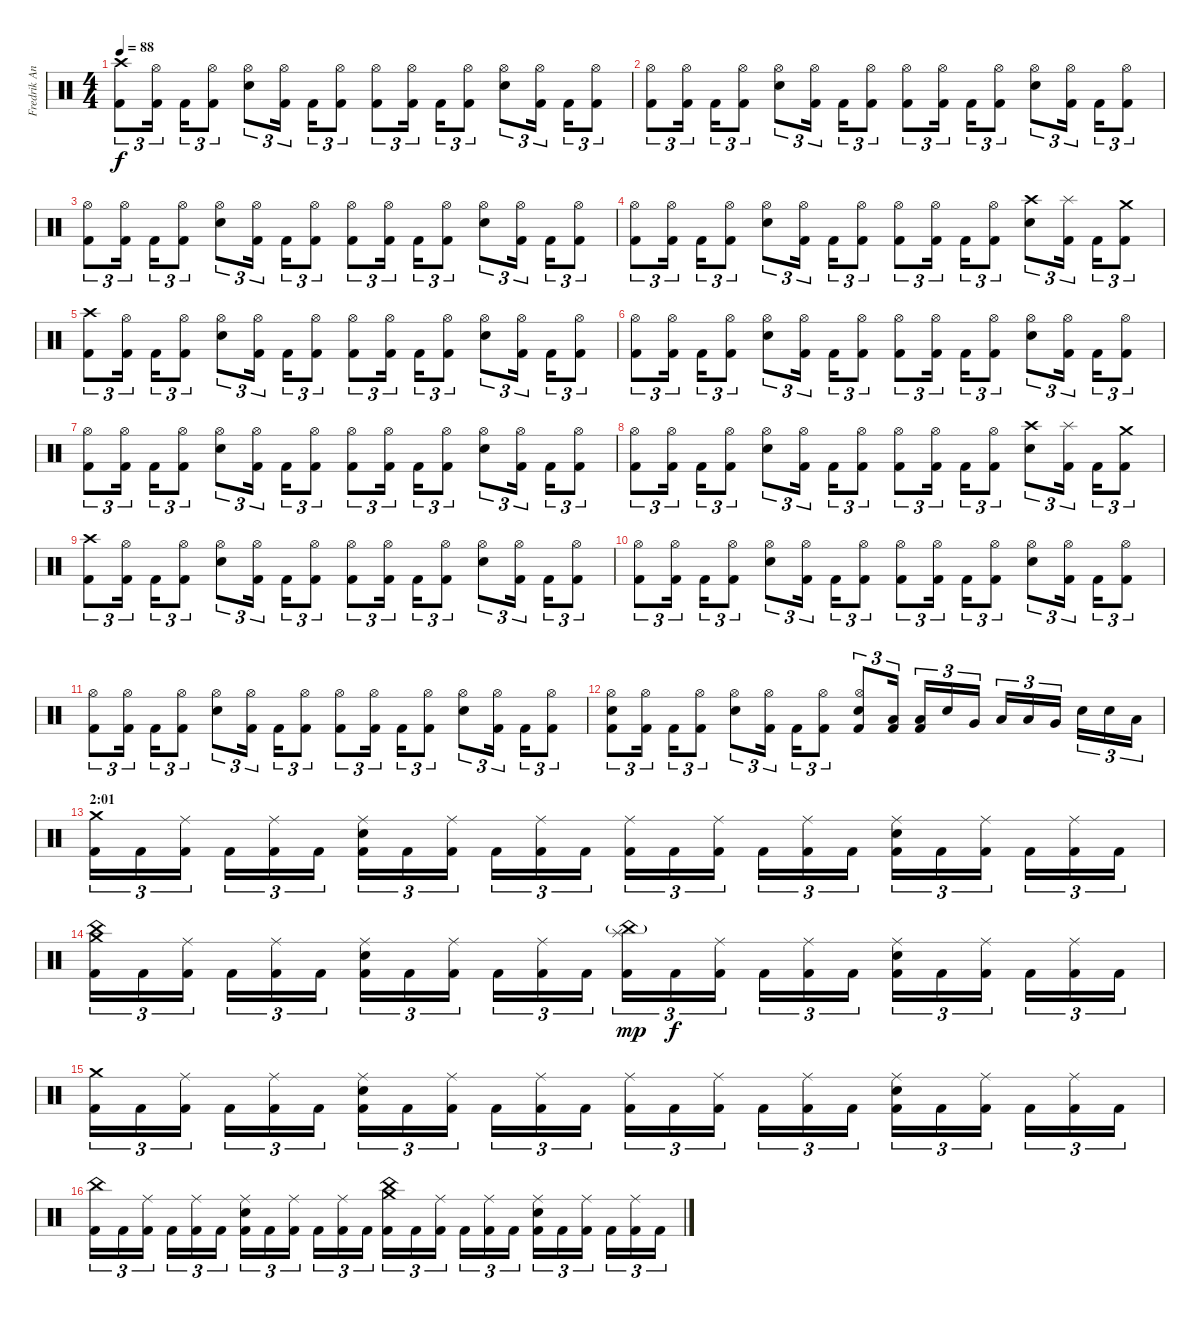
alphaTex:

\track ("Fredrik Andersson" "Fredrik An") {instrument percussion}
\staff {score}
\articulation defaults
\ts (4 4)
\tempo 88
\clef neutral
\ks c
("Crash high (hit)" "Kick (hit) 2").8{tu (3 2) dy f} ("Hi-Hat (open)" "Kick (hit) 2").16{tu (3 2)} "Kick (hit) 2".16{tu (3 2)} ("Hi-Hat (open)" "Kick (hit) 2").8{tu (3 2)} ("Hi-Hat (open)" "Electric Snare (hit)").8{tu (3 2)} ("Hi-Hat (open)" "Kick (hit) 2").16{tu (3 2)} "Kick (hit) 2".16{tu (3 2)} ("Hi-Hat (open)" "Kick (hit) 2").8{tu (3 2)} ("Hi-Hat (open)" "Kick (hit) 2").8{tu (3 2)} ("Hi-Hat (open)" "Kick (hit) 2").16{tu (3 2)} "Kick (hit) 2".16{tu (3 2)} ("Hi-Hat (open)" "Kick (hit) 2").8{tu (3 2)} ("Hi-Hat (open)" "Electric Snare (hit)").8{tu (3 2)} ("Hi-Hat (open)" "Kick (hit) 2").16{tu (3 2)} "Kick (hit) 2".16{tu (3 2)} ("Hi-Hat (open)" "Kick (hit) 2").8{tu (3 2)} |
("Hi-Hat (open)" "Kick (hit) 2").8{tu (3 2)} ("Hi-Hat (open)" "Kick (hit) 2").16{tu (3 2)} "Kick (hit) 2".16{tu (3 2)} ("Hi-Hat (open)" "Kick (hit) 2").8{tu (3 2)} ("Hi-Hat (open)" "Electric Snare (hit)").8{tu (3 2)} ("Hi-Hat (open)" "Kick (hit) 2").16{tu (3 2)} "Kick (hit) 2".16{tu (3 2)} ("Hi-Hat (open)" "Kick (hit) 2").8{tu (3 2)} ("Hi-Hat (open)" "Kick (hit) 2").8{tu (3 2)} ("Hi-Hat (open)" "Kick (hit) 2").16{tu (3 2)} "Kick (hit) 2".16{tu (3 2)} ("Hi-Hat (open)" "Kick (hit) 2").8{tu (3 2)} ("Hi-Hat (open)" "Electric Snare (hit)").8{tu (3 2)} ("Hi-Hat (open)" "Kick (hit) 2").16{tu (3 2)} "Kick (hit) 2".16{tu (3 2)} ("Hi-Hat (open)" "Kick (hit) 2").8{tu (3 2)} |
("Hi-Hat (open)" "Kick (hit) 2").8{tu (3 2)} ("Hi-Hat (open)" "Kick (hit) 2").16{tu (3 2)} "Kick (hit) 2".16{tu (3 2)} ("Hi-Hat (open)" "Kick (hit) 2").8{tu (3 2)} ("Hi-Hat (open)" "Electric Snare (hit)").8{tu (3 2)} ("Hi-Hat (open)" "Kick (hit) 2").16{tu (3 2)} "Kick (hit) 2".16{tu (3 2)} ("Hi-Hat (open)" "Kick (hit) 2").8{tu (3 2)} ("Hi-Hat (open)" "Kick (hit) 2").8{tu (3 2)} ("Hi-Hat (open)" "Kick (hit) 2").16{tu (3 2)} "Kick (hit) 2".16{tu (3 2)} ("Hi-Hat (open)" "Kick (hit) 2").8{tu (3 2)} ("Hi-Hat (open)" "Electric Snare (hit)").8{tu (3 2)} ("Hi-Hat (open)" "Kick (hit) 2").16{tu (3 2)} "Kick (hit) 2".16{tu (3 2)} ("Hi-Hat (open)" "Kick (hit) 2").8{tu (3 2)} |
("Hi-Hat (open)" "Kick (hit) 2").8{tu (3 2)} ("Hi-Hat (open)" "Kick (hit) 2").16{tu (3 2)} "Kick (hit) 2".16{tu (3 2)} ("Hi-Hat (open)" "Kick (hit) 2").8{tu (3 2)} ("Hi-Hat (open)" "Electric Snare (hit)").8{tu (3 2)} ("Hi-Hat (open)" "Kick (hit) 2").16{tu (3 2)} "Kick (hit) 2".16{tu (3 2)} ("Hi-Hat (open)" "Kick (hit) 2").8{tu (3 2)} ("Hi-Hat (open)" "Kick (hit) 2").8{tu (3 2)} ("Hi-Hat (open)" "Kick (hit) 2").16{tu (3 2)} "Kick (hit) 2".16{tu (3 2)} ("Hi-Hat (open)" "Kick (hit) 2").8{tu (3 2)} ("Crash high (hit)" "Electric Snare (hit)").8{tu (3 2)} ("Splash (hit)" "Kick (hit) 2").16{tu (3 2)} "Kick (hit) 2".16{tu (3 2)} ("Crash medium (hit)" "Kick (hit) 2").8{tu (3 2)} |
("Crash high (hit)" "Kick (hit) 2").8{tu (3 2)} ("Hi-Hat (open)" "Kick (hit) 2").16{tu (3 2)} "Kick (hit) 2".16{tu (3 2)} ("Hi-Hat (open)" "Kick (hit) 2").8{tu (3 2)} ("Hi-Hat (open)" "Electric Snare (hit)").8{tu (3 2)} ("Hi-Hat (open)" "Kick (hit) 2").16{tu (3 2)} "Kick (hit) 2".16{tu (3 2)} ("Hi-Hat (open)" "Kick (hit) 2").8{tu (3 2)} ("Hi-Hat (open)" "Kick (hit) 2").8{tu (3 2)} ("Hi-Hat (open)" "Kick (hit) 2").16{tu (3 2)} "Kick (hit) 2".16{tu (3 2)} ("Hi-Hat (open)" "Kick (hit) 2").8{tu (3 2)} ("Hi-Hat (open)" "Electric Snare (hit)").8{tu (3 2)} ("Hi-Hat (open)" "Kick (hit) 2").16{tu (3 2)} "Kick (hit) 2".16{tu (3 2)} ("Hi-Hat (open)" "Kick (hit) 2").8{tu (3 2)} |
("Hi-Hat (open)" "Kick (hit) 2").8{tu (3 2)} ("Hi-Hat (open)" "Kick (hit) 2").16{tu (3 2)} "Kick (hit) 2".16{tu (3 2)} ("Hi-Hat (open)" "Kick (hit) 2").8{tu (3 2)} ("Hi-Hat (open)" "Electric Snare (hit)").8{tu (3 2)} ("Hi-Hat (open)" "Kick (hit) 2").16{tu (3 2)} "Kick (hit) 2".16{tu (3 2)} ("Hi-Hat (open)" "Kick (hit) 2").8{tu (3 2)} ("Hi-Hat (open)" "Kick (hit) 2").8{tu (3 2)} ("Hi-Hat (open)" "Kick (hit) 2").16{tu (3 2)} "Kick (hit) 2".16{tu (3 2)} ("Hi-Hat (open)" "Kick (hit) 2").8{tu (3 2)} ("Hi-Hat (open)" "Electric Snare (hit)").8{tu (3 2)} ("Hi-Hat (open)" "Kick (hit) 2").16{tu (3 2)} "Kick (hit) 2".16{tu (3 2)} ("Hi-Hat (open)" "Kick (hit) 2").8{tu (3 2)} |
("Hi-Hat (open)" "Kick (hit) 2").8{tu (3 2)} ("Hi-Hat (open)" "Kick (hit) 2").16{tu (3 2)} "Kick (hit) 2".16{tu (3 2)} ("Hi-Hat (open)" "Kick (hit) 2").8{tu (3 2)} ("Hi-Hat (open)" "Electric Snare (hit)").8{tu (3 2)} ("Hi-Hat (open)" "Kick (hit) 2").16{tu (3 2)} "Kick (hit) 2".16{tu (3 2)} ("Hi-Hat (open)" "Kick (hit) 2").8{tu (3 2)} ("Hi-Hat (open)" "Kick (hit) 2").8{tu (3 2)} ("Hi-Hat (open)" "Kick (hit) 2").16{tu (3 2)} "Kick (hit) 2".16{tu (3 2)} ("Hi-Hat (open)" "Kick (hit) 2").8{tu (3 2)} ("Hi-Hat (open)" "Electric Snare (hit)").8{tu (3 2)} ("Hi-Hat (open)" "Kick (hit) 2").16{tu (3 2)} "Kick (hit) 2".16{tu (3 2)} ("Hi-Hat (open)" "Kick (hit) 2").8{tu (3 2)} |
("Hi-Hat (open)" "Kick (hit) 2").8{tu (3 2)} ("Hi-Hat (open)" "Kick (hit) 2").16{tu (3 2)} "Kick (hit) 2".16{tu (3 2)} ("Hi-Hat (open)" "Kick (hit) 2").8{tu (3 2)} ("Hi-Hat (open)" "Electric Snare (hit)").8{tu (3 2)} ("Hi-Hat (open)" "Kick (hit) 2").16{tu (3 2)} "Kick (hit) 2".16{tu (3 2)} ("Hi-Hat (open)" "Kick (hit) 2").8{tu (3 2)} ("Hi-Hat (open)" "Kick (hit) 2").8{tu (3 2)} ("Hi-Hat (open)" "Kick (hit) 2").16{tu (3 2)} "Kick (hit) 2".16{tu (3 2)} ("Hi-Hat (open)" "Kick (hit) 2").8{tu (3 2)} ("Crash high (hit)" "Electric Snare (hit)").8{tu (3 2)} ("Splash (hit)" "Kick (hit) 2").16{tu (3 2)} "Kick (hit) 2".16{tu (3 2)} ("Crash medium (hit)" "Kick (hit) 2").8{tu (3 2)} |
("Crash high (hit)" "Kick (hit) 2").8{tu (3 2)} ("Hi-Hat (open)" "Kick (hit) 2").16{tu (3 2)} "Kick (hit) 2".16{tu (3 2)} ("Hi-Hat (open)" "Kick (hit) 2").8{tu (3 2)} ("Hi-Hat (open)" "Electric Snare (hit)").8{tu (3 2)} ("Hi-Hat (open)" "Kick (hit) 2").16{tu (3 2)} "Kick (hit) 2".16{tu (3 2)} ("Hi-Hat (open)" "Kick (hit) 2").8{tu (3 2)} ("Hi-Hat (open)" "Kick (hit) 2").8{tu (3 2)} ("Hi-Hat (open)" "Kick (hit) 2").16{tu (3 2)} "Kick (hit) 2".16{tu (3 2)} ("Hi-Hat (open)" "Kick (hit) 2").8{tu (3 2)} ("Hi-Hat (open)" "Electric Snare (hit)").8{tu (3 2)} ("Hi-Hat (open)" "Kick (hit) 2").16{tu (3 2)} "Kick (hit) 2".16{tu (3 2)} ("Hi-Hat (open)" "Kick (hit) 2").8{tu (3 2)} |
("Hi-Hat (open)" "Kick (hit) 2").8{tu (3 2)} ("Hi-Hat (open)" "Kick (hit) 2").16{tu (3 2)} "Kick (hit) 2".16{tu (3 2)} ("Hi-Hat (open)" "Kick (hit) 2").8{tu (3 2)} ("Hi-Hat (open)" "Electric Snare (hit)").8{tu (3 2)} ("Hi-Hat (open)" "Kick (hit) 2").16{tu (3 2)} "Kick (hit) 2".16{tu (3 2)} ("Hi-Hat (open)" "Kick (hit) 2").8{tu (3 2)} ("Hi-Hat (open)" "Kick (hit) 2").8{tu (3 2)} ("Hi-Hat (open)" "Kick (hit) 2").16{tu (3 2)} "Kick (hit) 2".16{tu (3 2)} ("Hi-Hat (open)" "Kick (hit) 2").8{tu (3 2)} ("Hi-Hat (open)" "Electric Snare (hit)").8{tu (3 2)} ("Hi-Hat (open)" "Kick (hit) 2").16{tu (3 2)} "Kick (hit) 2".16{tu (3 2)} ("Hi-Hat (open)" "Kick (hit) 2").8{tu (3 2)} |
("Hi-Hat (open)" "Kick (hit) 2").8{tu (3 2)} ("Hi-Hat (open)" "Kick (hit) 2").16{tu (3 2)} "Kick (hit) 2".16{tu (3 2)} ("Hi-Hat (open)" "Kick (hit) 2").8{tu (3 2)} ("Hi-Hat (open)" "Electric Snare (hit)").8{tu (3 2)} ("Hi-Hat (open)" "Kick (hit) 2").16{tu (3 2)} "Kick (hit) 2".16{tu (3 2)} ("Hi-Hat (open)" "Kick (hit) 2").8{tu (3 2)} ("Hi-Hat (open)" "Kick (hit) 2").8{tu (3 2)} ("Hi-Hat (open)" "Kick (hit) 2").16{tu (3 2)} "Kick (hit) 2".16{tu (3 2)} ("Hi-Hat (open)" "Kick (hit) 2").8{tu (3 2)} ("Hi-Hat (open)" "Electric Snare (hit)").8{tu (3 2)} ("Hi-Hat (open)" "Kick (hit) 2").16{tu (3 2)} "Kick (hit) 2".16{tu (3 2)} ("Hi-Hat (open)" "Kick (hit) 2").8{tu (3 2)} |
("Hi-Hat (open)" "Electric Snare (hit)" "Kick (hit) 2").8{tu (3 2)} ("Hi-Hat (open)" "Kick (hit) 2").16{tu (3 2)} "Kick (hit) 2".16{tu (3 2)} ("Hi-Hat (open)" "Kick (hit) 2").8{tu (3 2)} ("Hi-Hat (open)" "Electric Snare (hit)").8{tu (3 2)} ("Hi-Hat (open)" "Kick (hit) 2").16{tu (3 2)} "Kick (hit) 2".16{tu (3 2)} ("Hi-Hat (open)" "Kick (hit) 2").8{tu (3 2)} ("Hi-Hat (open)" "Electric Snare (hit)" "Kick (hit) 2").8{tu (3 2)} ("Low Floor Tom (hit)" "Kick (hit) 2").16{tu (3 2)} ("Low Floor Tom (hit)" "Kick (hit) 2").16{tu (3 2)} "Electric Snare (hit)".16{tu (3 2)} "Very Low Tom (hit)".16{tu (3 2)} "Low Tom (hit)".16{tu (3 2)} "Low Tom (hit)".16{tu (3 2)} "Very Low Tom (hit)".16{tu (3 2)} "Electric Snare (hit)".16{tu (3 2)} "Electric Snare (hit)".16{tu (3 2)} "Low Floor Tom (hit)".16{tu (3 2)} |
\section ("" "2:01")
("Crash medium (hit)" "Kick (hit) 2").16{tu (3 2)} "Kick (hit) 2".16{tu (3 2)} ("Ride (middle)" "Kick (hit) 2").16{tu (3 2)} "Kick (hit) 2".16{tu (3 2)} ("Ride (middle)" "Kick (hit) 2").16{tu (3 2)} "Kick (hit) 2".16{tu (3 2)} ("Ride (middle)" "Electric Snare (hit)" "Kick (hit) 2").16{tu (3 2)} "Kick (hit) 2".16{tu (3 2)} ("Ride (middle)" "Kick (hit) 2").16{tu (3 2)} "Kick (hit) 2".16{tu (3 2)} ("Ride (middle)" "Kick (hit) 2").16{tu (3 2)} "Kick (hit) 2".16{tu (3 2)} ("Ride (middle)" "Kick (hit) 2").16{tu (3 2)} "Kick (hit) 2".16{tu (3 2)} ("Ride (middle)" "Kick (hit) 2").16{tu (3 2)} "Kick (hit) 2".16{tu (3 2)} ("Ride (middle)" "Kick (hit) 2").16{tu (3 2)} "Kick (hit) 2".16{tu (3 2)} ("Ride (middle)" "Electric Snare (hit)" "Kick (hit) 2").16{tu (3 2)} "Kick (hit) 2".16{tu (3 2)} ("Ride (middle)" "Kick (hit) 2").16{tu (3 2)} "Kick (hit) 2".16{tu (3 2)} ("Ride (middle)" "Kick (hit) 2").16{tu (3 2)} "Kick (hit) 2".16{tu (3 2)} |
("China (hit)" "Crash medium (hit)" "Kick (hit) 2").16{tu (3 2)} "Kick (hit) 2".16{tu (3 2)} ("Ride (middle)" "Kick (hit) 2").16{tu (3 2)} "Kick (hit) 2".16{tu (3 2)} ("Ride (middle)" "Kick (hit) 2").16{tu (3 2)} "Kick (hit) 2".16{tu (3 2)} ("Ride (middle)" "Electric Snare (hit)" "Kick (hit) 2").16{tu (3 2)} "Kick (hit) 2".16{tu (3 2)} ("Ride (middle)" "Kick (hit) 2").16{tu (3 2)} "Kick (hit) 2".16{tu (3 2)} ("Ride (middle)" "Kick (hit) 2").16{tu (3 2)} "Kick (hit) 2".16{tu (3 2)} ("Splash (hit)" "China (hit)"{g} "Kick (hit) 2").16{tu (3 2) dy mp} "Kick (hit) 2".16{tu (3 2) dy f} ("Ride (middle)" "Kick (hit) 2").16{tu (3 2)} "Kick (hit) 2".16{tu (3 2)} ("Ride (middle)" "Kick (hit) 2").16{tu (3 2)} "Kick (hit) 2".16{tu (3 2)} ("Ride (middle)" "Electric Snare (hit)" "Kick (hit) 2").16{tu (3 2)} "Kick (hit) 2".16{tu (3 2)} ("Ride (middle)" "Kick (hit) 2").16{tu (3 2)} "Kick (hit) 2".16{tu (3 2)} ("Ride (middle)" "Kick (hit) 2").16{tu (3 2)} "Kick (hit) 2".16{tu (3 2)} |
("Crash medium (hit)" "Kick (hit) 2").16{tu (3 2)} "Kick (hit) 2".16{tu (3 2)} ("Ride (middle)" "Kick (hit) 2").16{tu (3 2)} "Kick (hit) 2".16{tu (3 2)} ("Ride (middle)" "Kick (hit) 2").16{tu (3 2)} "Kick (hit) 2".16{tu (3 2)} ("Ride (middle)" "Electric Snare (hit)" "Kick (hit) 2").16{tu (3 2)} "Kick (hit) 2".16{tu (3 2)} ("Ride (middle)" "Kick (hit) 2").16{tu (3 2)} "Kick (hit) 2".16{tu (3 2)} ("Ride (middle)" "Kick (hit) 2").16{tu (3 2)} "Kick (hit) 2".16{tu (3 2)} ("Ride (middle)" "Kick (hit) 2").16{tu (3 2)} "Kick (hit) 2".16{tu (3 2)} ("Ride (middle)" "Kick (hit) 2").16{tu (3 2)} "Kick (hit) 2".16{tu (3 2)} ("Ride (middle)" "Kick (hit) 2").16{tu (3 2)} "Kick (hit) 2".16{tu (3 2)} ("Ride (middle)" "Electric Snare (hit)" "Kick (hit) 2").16{tu (3 2)} "Kick (hit) 2".16{tu (3 2)} ("Ride (middle)" "Kick (hit) 2").16{tu (3 2)} "Kick (hit) 2".16{tu (3 2)} ("Ride (middle)" "Kick (hit) 2").16{tu (3 2)} "Kick (hit) 2".16{tu (3 2)} |
("China (hit)" "Kick (hit) 2").16{tu (3 2)} "Kick (hit) 2".16{tu (3 2)} ("Ride (middle)" "Kick (hit) 2").16{tu (3 2)} "Kick (hit) 2".16{tu (3 2)} ("Ride (middle)" "Kick (hit) 2").16{tu (3 2)} "Kick (hit) 2".16{tu (3 2)} ("Ride (middle)" "Electric Snare (hit)" "Kick (hit) 2").16{tu (3 2)} "Kick (hit) 2".16{tu (3 2)} ("Ride (middle)" "Kick (hit) 2").16{tu (3 2)} "Kick (hit) 2".16{tu (3 2)} ("Ride (middle)" "Kick (hit) 2").16{tu (3 2)} "Kick (hit) 2".16{tu (3 2)} ("China (hit)" "Crash medium (hit)" "Kick (hit) 2").16{tu (3 2)} "Kick (hit) 2".16{tu (3 2)} ("Ride (middle)" "Kick (hit) 2").16{tu (3 2)} "Kick (hit) 2".16{tu (3 2)} ("Ride (middle)" "Kick (hit) 2").16{tu (3 2)} "Kick (hit) 2".16{tu (3 2)} ("Ride (middle)" "Electric Snare (hit)" "Kick (hit) 2").16{tu (3 2)} "Kick (hit) 2".16{tu (3 2)} ("Ride (middle)" "Kick (hit) 2").16{tu (3 2)} "Kick (hit) 2".16{tu (3 2)} ("Ride (middle)" "Kick (hit) 2").16{tu (3 2)} "Kick (hit) 2".16{tu (3 2)}
